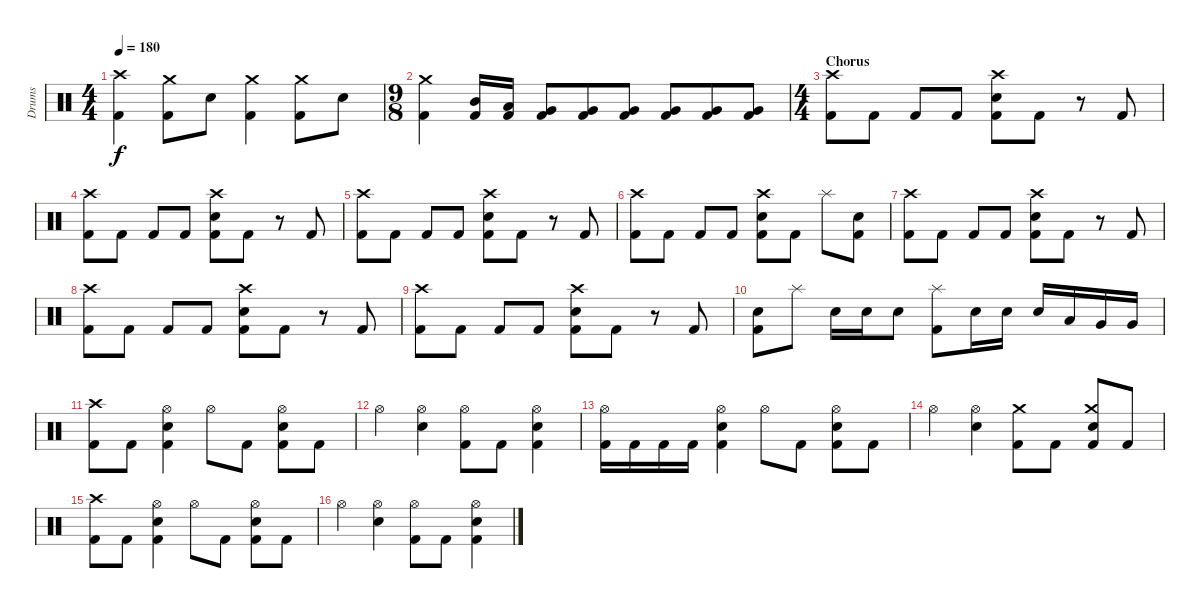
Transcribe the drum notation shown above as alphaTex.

\track ("Drums" "Drums") {instrument percussion}
\staff {score}
\articulation defaults
\ts (4 4)
\tempo 180
\clef neutral
\ks c
("Crash high (hit)" "Kick (hit) 2").4{dy f} ("Crash medium (hit)" "Kick (hit) 2").8 "Electric Snare (hit)".8 ("Crash medium (hit)" "Kick (hit) 2").4 ("Crash medium (hit)" "Kick (hit) 2").8 "Electric Snare (hit)".8 |
\ts (9 8)
("Crash medium (hit)" "Kick (hit) 2").4 ("Mid Tom (hit)" "Kick (hit) 2").16 ("Low Tom (hit)" "Kick (hit) 2").16 ("Very Low Tom (hit)" "Kick (hit) 2").8 ("Very Low Tom (hit)" "Kick (hit) 2").8 ("Very Low Tom (hit)" "Kick (hit) 2").8 ("Very Low Tom (hit)" "Kick (hit) 2").8 ("Very Low Tom (hit)" "Kick (hit) 2").8 ("Very Low Tom (hit)" "Kick (hit) 2").8 |
\ts (4 4)
\section ("" "Chorus")
("Crash high (hit)" "Kick (hit) 2").8 "Kick (hit) 2".8 "Kick (hit) 2".8 "Kick (hit) 2".8 ("Crash high (hit)" "Electric Snare (hit)" "Kick (hit) 2").8 "Kick (hit) 2".8 r.8 "Kick (hit) 2".8 |
("Crash high (hit)" "Kick (hit) 2").8 "Kick (hit) 2".8 "Kick (hit) 2".8 "Kick (hit) 2".8 ("Crash high (hit)" "Electric Snare (hit)" "Kick (hit) 2").8 "Kick (hit) 2".8 r.8 "Kick (hit) 2".8 |
("Crash high (hit)" "Kick (hit) 2").8 "Kick (hit) 2".8 "Kick (hit) 2".8 "Kick (hit) 2".8 ("Crash high (hit)" "Electric Snare (hit)" "Kick (hit) 2").8 "Kick (hit) 2".8 r.8 "Kick (hit) 2".8 |
("Crash high (hit)" "Kick (hit) 2").8 "Kick (hit) 2".8 "Kick (hit) 2".8 "Kick (hit) 2".8 ("Crash high (hit)" "Electric Snare (hit)" "Kick (hit) 2").8 "Kick (hit) 2".8 "Splash (hit)".8 ("Electric Snare (hit)" "Kick (hit) 2").8 |
("Crash high (hit)" "Kick (hit) 2").8 "Kick (hit) 2".8 "Kick (hit) 2".8 "Kick (hit) 2".8 ("Crash high (hit)" "Electric Snare (hit)" "Kick (hit) 2").8 "Kick (hit) 2".8 r.8 "Kick (hit) 2".8 |
("Crash high (hit)" "Kick (hit) 2").8 "Kick (hit) 2".8 "Kick (hit) 2".8 "Kick (hit) 2".8 ("Crash high (hit)" "Electric Snare (hit)" "Kick (hit) 2").8 "Kick (hit) 2".8 r.8 "Kick (hit) 2".8 |
("Crash high (hit)" "Kick (hit) 2").8 "Kick (hit) 2".8 "Kick (hit) 2".8 "Kick (hit) 2".8 ("Crash high (hit)" "Electric Snare (hit)" "Kick (hit) 2").8 "Kick (hit) 2".8 r.8 "Kick (hit) 2".8 |
("Electric Snare (hit)" "Kick (hit) 2").8 "Splash (hit)".8 "Electric Snare (hit)".16 "Electric Snare (hit)".16 "Electric Snare (hit)".8 ("Splash (hit)" "Kick (hit) 2").8 "Electric Snare (hit)".16 "Electric Snare (hit)".16 "Electric Snare (hit)".16 "Low Tom (hit)".16 "Very Low Tom (hit)".16 "Very Low Tom (hit)".16 |
("Crash high (hit)" "Kick (hit) 2").8 "Kick (hit) 2".8 ("Hi-Hat (open)" "Electric Snare (hit)" "Kick (hit) 2").4 "Hi-Hat (open)".8 "Kick (hit) 2".8 ("Hi-Hat (open)" "Electric Snare (hit)" "Kick (hit) 2").8 "Kick (hit) 2".8 |
"Hi-Hat (open)".4 ("Hi-Hat (open)" "Electric Snare (hit)").4 ("Hi-Hat (open)" "Kick (hit) 2").8 "Kick (hit) 2".8 ("Hi-Hat (open)" "Electric Snare (hit)" "Kick (hit) 2").4 |
("Hi-Hat (open)" "Kick (hit) 2").16 "Kick (hit) 2".16 "Kick (hit) 2".16 "Kick (hit) 2".16 ("Hi-Hat (open)" "Electric Snare (hit)" "Kick (hit) 2").4 "Hi-Hat (open)".8 "Kick (hit) 2".8 ("Hi-Hat (open)" "Electric Snare (hit)" "Kick (hit) 2").8 "Kick (hit) 2".8 |
"Hi-Hat (open)".4 ("Hi-Hat (open)" "Electric Snare (hit)").4 ("Crash medium (hit)" "Kick (hit) 2").8 "Kick (hit) 2".8 ("Crash medium (hit)" "Electric Snare (hit)" "Kick (hit) 2").8 "Kick (hit) 2".8 |
("Crash high (hit)" "Kick (hit) 2").8 "Kick (hit) 2".8 ("Hi-Hat (open)" "Electric Snare (hit)" "Kick (hit) 2").4 "Hi-Hat (open)".8 "Kick (hit) 2".8 ("Hi-Hat (open)" "Electric Snare (hit)" "Kick (hit) 2").8 "Kick (hit) 2".8 |
"Hi-Hat (open)".4 ("Hi-Hat (open)" "Electric Snare (hit)").4 ("Hi-Hat (open)" "Kick (hit) 2").8 "Kick (hit) 2".8 ("Hi-Hat (open)" "Electric Snare (hit)" "Kick (hit) 2").4
